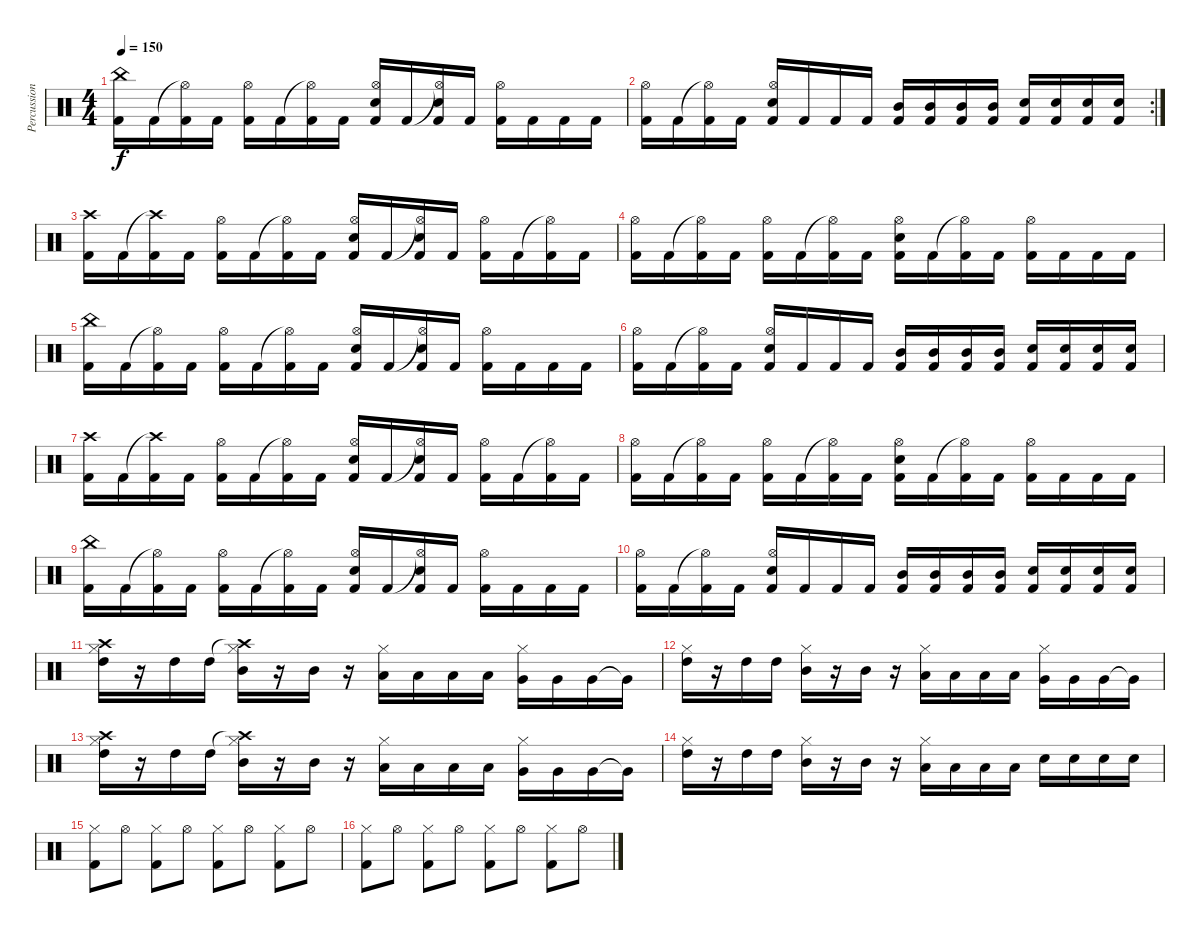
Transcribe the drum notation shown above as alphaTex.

\track ("Percussion" "Percussion") {instrument percussion}
\staff {score}
\articulation defaults
\ts (4 4)
\tempo 150
\clef neutral
\ks c
("China (hit)" "Kick (hit) 2").16{dy f} "Kick (hit) 2".16 ("Hi-Hat (open)"{t} "Kick (hit) 2").16 "Kick (hit) 2".16 ("Hi-Hat (open)" "Kick (hit) 2").16 "Kick (hit) 2".16 ("Hi-Hat (open)"{t} "Kick (hit) 2").16 "Kick (hit) 2".16 ("Hi-Hat (open)" "Electric Snare (hit)" "Kick (hit) 2").16 "Kick (hit) 2".16 ("Hi-Hat (open)"{t} "Electric Snare (hit)" "Kick (hit) 2").16 "Kick (hit) 2".16 ("Hi-Hat (open)" "Kick (hit) 2").16 "Kick (hit) 2".16 "Kick (hit) 2".16 "Kick (hit) 2".16 |
\rc 2
("Hi-Hat (open)" "Kick (hit) 2").16 "Kick (hit) 2".16 ("Hi-Hat (open)"{t} "Kick (hit) 2").16 "Kick (hit) 2".16 ("Hi-Hat (open)" "Electric Snare (hit)" "Kick (hit) 2").16 "Kick (hit) 2".16 "Kick (hit) 2".16 "Kick (hit) 2".16 ("Mid Tom (hit)" "Kick (hit) 2").16 ("Mid Tom (hit)" "Kick (hit) 2").16 ("Mid Tom (hit)" "Kick (hit) 2").16 ("Mid Tom (hit)" "Kick (hit) 2").16 ("Electric Snare (hit)" "Kick (hit) 2").16 ("Electric Snare (hit)" "Kick (hit) 2").16 ("Electric Snare (hit)" "Kick (hit) 2").16 ("Electric Snare (hit)" "Kick (hit) 2").16 |
("Crash high (hit)" "Kick (hit) 2").16 "Kick (hit) 2".16 ("Crash high (hit)"{t} "Kick (hit) 2").16 "Kick (hit) 2".16 ("Hi-Hat (open)" "Kick (hit) 2").16 "Kick (hit) 2".16 ("Hi-Hat (open)"{t} "Kick (hit) 2").16 "Kick (hit) 2".16 ("Hi-Hat (open)" "Electric Snare (hit)" "Kick (hit) 2").16 "Kick (hit) 2".16 ("Hi-Hat (open)"{t} "Electric Snare (hit)" "Kick (hit) 2").16 "Kick (hit) 2".16 ("Hi-Hat (open)" "Kick (hit) 2").16 "Kick (hit) 2".16 ("Hi-Hat (open)"{t} "Kick (hit) 2").16 "Kick (hit) 2".16 |
("Hi-Hat (open)" "Kick (hit) 2").16 "Kick (hit) 2".16 ("Hi-Hat (open)"{t} "Kick (hit) 2").16 "Kick (hit) 2".16 ("Hi-Hat (open)" "Kick (hit) 2").16 "Kick (hit) 2".16 ("Hi-Hat (open)"{t} "Kick (hit) 2").16 "Kick (hit) 2".16 ("Hi-Hat (open)" "Electric Snare (hit)" "Kick (hit) 2").16 "Kick (hit) 2".16 ("Hi-Hat (open)"{t} "Kick (hit) 2").16 "Kick (hit) 2".16 ("Hi-Hat (open)" "Kick (hit) 2").16 "Kick (hit) 2".16 "Kick (hit) 2".16 "Kick (hit) 2".16 |
("China (hit)" "Kick (hit) 2").16 "Kick (hit) 2".16 ("Hi-Hat (open)"{t} "Kick (hit) 2").16 "Kick (hit) 2".16 ("Hi-Hat (open)" "Kick (hit) 2").16 "Kick (hit) 2".16 ("Hi-Hat (open)"{t} "Kick (hit) 2").16 "Kick (hit) 2".16 ("Hi-Hat (open)" "Electric Snare (hit)" "Kick (hit) 2").16 "Kick (hit) 2".16 ("Hi-Hat (open)"{t} "Electric Snare (hit)" "Kick (hit) 2").16 "Kick (hit) 2".16 ("Hi-Hat (open)" "Kick (hit) 2").16 "Kick (hit) 2".16 "Kick (hit) 2".16 "Kick (hit) 2".16 |
("Hi-Hat (open)" "Kick (hit) 2").16 "Kick (hit) 2".16 ("Hi-Hat (open)"{t} "Kick (hit) 2").16 "Kick (hit) 2".16 ("Hi-Hat (open)" "Electric Snare (hit)" "Kick (hit) 2").16 "Kick (hit) 2".16 "Kick (hit) 2".16 "Kick (hit) 2".16 ("Mid Tom (hit)" "Kick (hit) 2").16 ("Mid Tom (hit)" "Kick (hit) 2").16 ("Mid Tom (hit)" "Kick (hit) 2").16 ("Mid Tom (hit)" "Kick (hit) 2").16 ("Electric Snare (hit)" "Kick (hit) 2").16 ("Electric Snare (hit)" "Kick (hit) 2").16 ("Electric Snare (hit)" "Kick (hit) 2").16 ("Electric Snare (hit)" "Kick (hit) 2").16 |
("Crash high (hit)" "Kick (hit) 2").16 "Kick (hit) 2".16 ("Crash high (hit)"{t} "Kick (hit) 2").16 "Kick (hit) 2".16 ("Hi-Hat (open)" "Kick (hit) 2").16 "Kick (hit) 2".16 ("Hi-Hat (open)"{t} "Kick (hit) 2").16 "Kick (hit) 2".16 ("Hi-Hat (open)" "Electric Snare (hit)" "Kick (hit) 2").16 "Kick (hit) 2".16 ("Hi-Hat (open)"{t} "Electric Snare (hit)" "Kick (hit) 2").16 "Kick (hit) 2".16 ("Hi-Hat (open)" "Kick (hit) 2").16 "Kick (hit) 2".16 ("Hi-Hat (open)"{t} "Kick (hit) 2").16 "Kick (hit) 2".16 |
("Hi-Hat (open)" "Kick (hit) 2").16 "Kick (hit) 2".16 ("Hi-Hat (open)"{t} "Kick (hit) 2").16 "Kick (hit) 2".16 ("Hi-Hat (open)" "Kick (hit) 2").16 "Kick (hit) 2".16 ("Hi-Hat (open)"{t} "Kick (hit) 2").16 "Kick (hit) 2".16 ("Hi-Hat (open)" "Electric Snare (hit)" "Kick (hit) 2").16 "Kick (hit) 2".16 ("Hi-Hat (open)"{t} "Kick (hit) 2").16 "Kick (hit) 2".16 ("Hi-Hat (open)" "Kick (hit) 2").16 "Kick (hit) 2".16 "Kick (hit) 2".16 "Kick (hit) 2".16 |
("China (hit)" "Kick (hit) 2").16 "Kick (hit) 2".16 ("Hi-Hat (open)"{t} "Kick (hit) 2").16 "Kick (hit) 2".16 ("Hi-Hat (open)" "Kick (hit) 2").16 "Kick (hit) 2".16 ("Hi-Hat (open)"{t} "Kick (hit) 2").16 "Kick (hit) 2".16 ("Hi-Hat (open)" "Electric Snare (hit)" "Kick (hit) 2").16 "Kick (hit) 2".16 ("Hi-Hat (open)"{t} "Electric Snare (hit)" "Kick (hit) 2").16 "Kick (hit) 2".16 ("Hi-Hat (open)" "Kick (hit) 2").16 "Kick (hit) 2".16 "Kick (hit) 2".16 "Kick (hit) 2".16 |
("Hi-Hat (open)" "Kick (hit) 2").16 "Kick (hit) 2".16 ("Hi-Hat (open)"{t} "Kick (hit) 2").16 "Kick (hit) 2".16 ("Hi-Hat (open)" "Electric Snare (hit)" "Kick (hit) 2").16 "Kick (hit) 2".16 "Kick (hit) 2".16 "Kick (hit) 2".16 ("Mid Tom (hit)" "Kick (hit) 2").16 ("Mid Tom (hit)" "Kick (hit) 2").16 ("Mid Tom (hit)" "Kick (hit) 2").16 ("Mid Tom (hit)" "Kick (hit) 2").16 ("Electric Snare (hit)" "Kick (hit) 2").16 ("Electric Snare (hit)" "Kick (hit) 2").16 ("Electric Snare (hit)" "Kick (hit) 2").16 ("Electric Snare (hit)" "Kick (hit) 2").16 |
("Crash high (hit)" "Hi-Hat (closed)" "High Tom (hit)").16 r.16 "High Tom (hit)".16 "High Tom (hit)".16 ("Crash high (hit)"{t} "Hi-Hat (closed)" "Mid Tom (hit)").16 r.16 "Mid Tom (hit)".16 r.16 ("Hi-Hat (closed)" "Low Tom (hit)").16 "Low Tom (hit)".16 "Low Tom (hit)".16 "Low Tom (hit)".16 ("Hi-Hat (closed)" "Very Low Tom (hit)").16 "Very Low Tom (hit)".16 "Very Low Tom (hit)".16 "Very Low Tom (hit)"{t}.16 |
("Hi-Hat (closed)" "High Tom (hit)").16 r.16 "High Tom (hit)".16 "High Tom (hit)".16 ("Hi-Hat (closed)" "Mid Tom (hit)").16 r.16 "Mid Tom (hit)".16 r.16 ("Hi-Hat (closed)" "Low Tom (hit)").16 "Low Tom (hit)".16 "Low Tom (hit)".16 "Low Tom (hit)".16 ("Hi-Hat (closed)" "Very Low Tom (hit)").16 "Very Low Tom (hit)".16 "Very Low Tom (hit)".16 "Very Low Tom (hit)"{t}.16 |
("Crash high (hit)" "Hi-Hat (closed)" "High Tom (hit)").16 r.16 "High Tom (hit)".16 "High Tom (hit)".16 ("Crash high (hit)"{t} "Hi-Hat (closed)" "Mid Tom (hit)").16 r.16 "Mid Tom (hit)".16 r.16 ("Hi-Hat (closed)" "Low Tom (hit)").16 "Low Tom (hit)".16 "Low Tom (hit)".16 "Low Tom (hit)".16 ("Hi-Hat (closed)" "Very Low Tom (hit)").16 "Very Low Tom (hit)".16 "Very Low Tom (hit)".16 "Very Low Tom (hit)"{t}.16 |
("Hi-Hat (closed)" "High Tom (hit)").16 r.16 "High Tom (hit)".16 "High Tom (hit)".16 ("Hi-Hat (closed)" "Mid Tom (hit)").16 r.16 "Mid Tom (hit)".16 r.16 ("Hi-Hat (closed)" "Low Tom (hit)").16 "Low Tom (hit)".16 "Low Tom (hit)".16 "Low Tom (hit)".16 "Electric Snare (hit)".16 "Electric Snare (hit)".16 "Electric Snare (hit)".16 "Electric Snare (hit)".16 |
("Hi-Hat (closed)" "Kick (hit) 2").8 "Hi-Hat (open)".8 ("Hi-Hat (closed)" "Kick (hit) 2").8 "Hi-Hat (open)".8 ("Hi-Hat (closed)" "Kick (hit) 2").8 "Hi-Hat (open)".8 ("Hi-Hat (closed)" "Kick (hit) 2").8 "Hi-Hat (open)".8 |
("Hi-Hat (closed)" "Kick (hit) 2").8 "Hi-Hat (open)".8 ("Hi-Hat (closed)" "Kick (hit) 2").8 "Hi-Hat (open)".8 ("Hi-Hat (closed)" "Kick (hit) 2").8 "Hi-Hat (open)".8 ("Hi-Hat (closed)" "Kick (hit) 2").8 "Hi-Hat (open)".8
